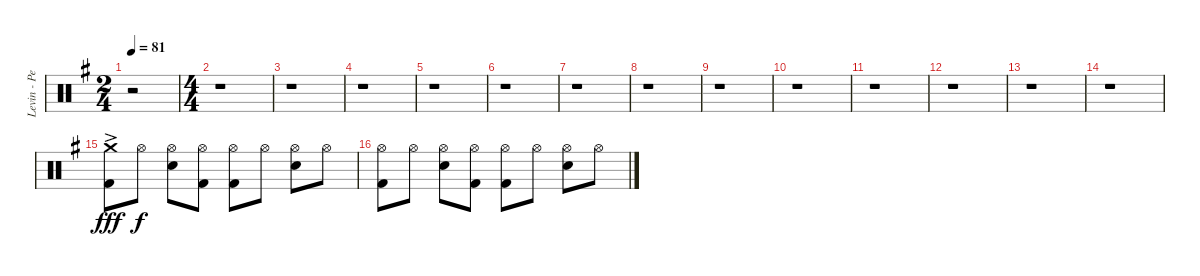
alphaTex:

\track ("Levin - Percussion" "Levin - Pe") {instrument percussion}
\staff {score}
\articulation defaults
\ts (2 4)
\tempo 81
\clef neutral
\ks g
r.2{dy fff} |
\ts (4 4)
r.1 |
r.1 |
r.1 |
r.1 |
r.1 |
r.1 |
r.1 |
r.1 |
r.1 |
r.1 |
r.1 |
r.1 |
r.1 |
("Crash medium (hit)"{ac} "Kick (hit) 2"{ac}).8 "Hi-Hat (open)".8{dy f} ("Hi-Hat (open)" "Electric Snare (hit)").8 ("Hi-Hat (open)" "Kick (hit) 2").8 ("Hi-Hat (open)" "Kick (hit) 2").8 "Hi-Hat (open)".8 ("Hi-Hat (open)" "Electric Snare (hit)").8 "Hi-Hat (open)".8 |
("Hi-Hat (open)" "Kick (hit) 2").8 "Hi-Hat (open)".8 ("Hi-Hat (open)" "Electric Snare (hit)").8 ("Hi-Hat (open)" "Kick (hit) 2").8 ("Hi-Hat (open)" "Kick (hit) 2").8 "Hi-Hat (open)".8 ("Hi-Hat (open)" "Electric Snare (hit)").8 "Hi-Hat (open)".8
